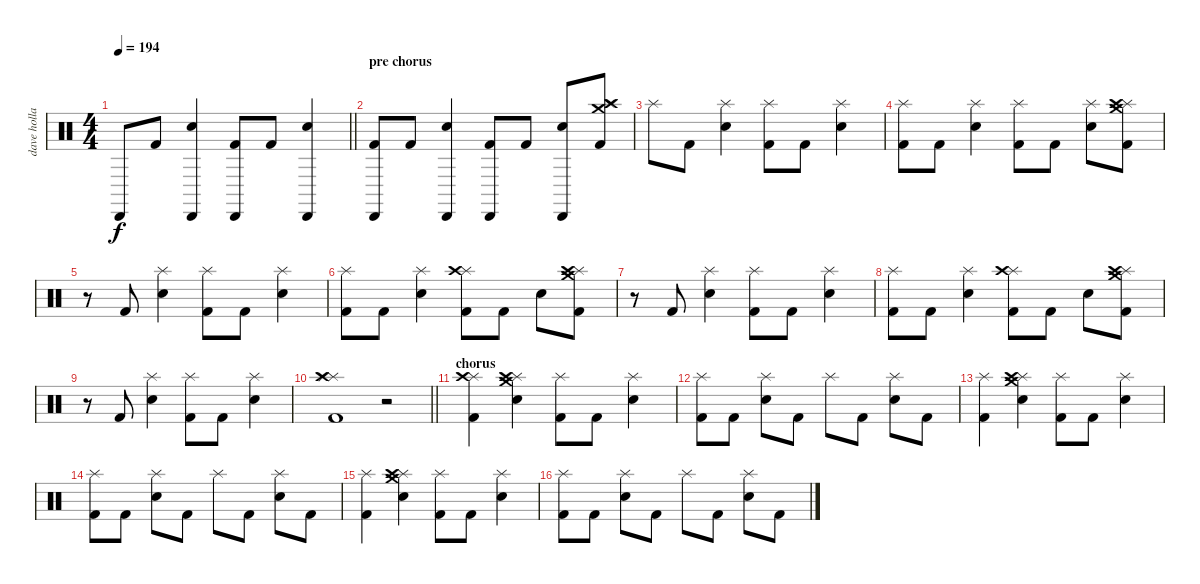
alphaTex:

\track ("dave holland" "dave holla") {instrument percussion}
\staff {score}
\articulation defaults
\ts (4 4)
\tempo 194
\clef neutral
\barLineRight lightlight
\ks c "Cabasa (hit)".8{dy f} "Kick (hit) 2".8
("Cabasa (hit)" "Electric Snare (hit)").4 ("Cabasa (hit)" "Kick (hit) 2").8 "Kick (hit) 2".8 ("Cabasa (hit)" "Electric Snare (hit)").4 |
\section ("" "pre chorus")
("Cabasa (hit)" "Kick (hit) 2").8 "Kick (hit) 2".8 ("Cabasa (hit)" "Electric Snare (hit)").4 ("Cabasa (hit)" "Kick (hit) 2").8 "Kick (hit) 2".8 ("Cabasa (hit)" "Electric Snare (hit)").8 ("Crash medium (hit)" "Splash (hit)" "Crash high (hit)" "Kick (hit) 2").8 |
"Splash (hit)".8 "Kick (hit) 2".8 ("Splash (hit)" "Electric Snare (hit)").4 ("Splash (hit)" "Kick (hit) 2").8 "Kick (hit) 2".8 ("Splash (hit)" "Electric Snare (hit)").4 |
("Splash (hit)" "Kick (hit) 2").8 "Kick (hit) 2".8 ("Splash (hit)" "Electric Snare (hit)").4 ("Splash (hit)" "Kick (hit) 2").8 "Kick (hit) 2".8 ("Splash (hit)" "Electric Snare (hit)").8 ("Crash medium (hit)" "Splash (hit)" "Crash high (hit)" "Kick (hit) 2").8 |
r.8 "Kick (hit) 2".8 ("Splash (hit)" "Electric Snare (hit)").4 ("Splash (hit)" "Kick (hit) 2").8 "Kick (hit) 2".8 ("Splash (hit)" "Electric Snare (hit)").4 |
("Splash (hit)" "Kick (hit) 2").8 "Kick (hit) 2".8 ("Splash (hit)" "Electric Snare (hit)").4 ("Splash (hit)" "Crash high (hit)" "Kick (hit) 2").8 "Kick (hit) 2".8 "Electric Snare (hit)".8 ("Crash medium (hit)" "Splash (hit)" "Crash high (hit)" "Kick (hit) 2").8 |
r.8 "Kick (hit) 2".8 ("Splash (hit)" "Electric Snare (hit)").4 ("Splash (hit)" "Kick (hit) 2").8 "Kick (hit) 2".8 ("Splash (hit)" "Electric Snare (hit)").4 |
("Splash (hit)" "Kick (hit) 2").8 "Kick (hit) 2".8 ("Splash (hit)" "Electric Snare (hit)").4 ("Splash (hit)" "Crash high (hit)" "Kick (hit) 2").8 "Kick (hit) 2".8 "Electric Snare (hit)".8 ("Crash medium (hit)" "Splash (hit)" "Crash high (hit)" "Kick (hit) 2").8 |
r.8 "Kick (hit) 2".8 ("Splash (hit)" "Electric Snare (hit)").4 ("Splash (hit)" "Kick (hit) 2").8 "Kick (hit) 2".8 ("Splash (hit)" "Electric Snare (hit)").4 |
\barLineRight lightlight
("Splash (hit)" "Splash (hit)" "Crash high (hit)" "Kick (hit) 2").1 r.2 |
\section ("" "chorus")
("Splash (hit)" "Crash high (hit)" "Kick (hit) 2").4 ("Crash medium (hit)" "Splash (hit)" "Crash high (hit)" "Electric Snare (hit)").4 ("Splash (hit)" "Kick (hit) 2").8 "Kick (hit) 2".8 ("Splash (hit)" "Electric Snare (hit)").4 |
("Splash (hit)" "Kick (hit) 2").8 "Kick (hit) 2".8 ("Splash (hit)" "Electric Snare (hit)").8 "Kick (hit) 2".8 "Splash (hit)".8 "Kick (hit) 2".8 ("Splash (hit)" "Electric Snare (hit)").8 "Kick (hit) 2".8 |
("Splash (hit)" "Kick (hit) 2").4 ("Crash medium (hit)" "Splash (hit)" "Crash high (hit)" "Electric Snare (hit)").4 ("Splash (hit)" "Kick (hit) 2").8 "Kick (hit) 2".8 ("Splash (hit)" "Electric Snare (hit)").4 |
("Splash (hit)" "Kick (hit) 2").8 "Kick (hit) 2".8 ("Splash (hit)" "Electric Snare (hit)").8 "Kick (hit) 2".8 "Splash (hit)".8 "Kick (hit) 2".8 ("Splash (hit)" "Electric Snare (hit)").8 "Kick (hit) 2".8 |
("Splash (hit)" "Kick (hit) 2").4 ("Crash medium (hit)" "Splash (hit)" "Crash high (hit)" "Electric Snare (hit)").4 ("Splash (hit)" "Kick (hit) 2").8 "Kick (hit) 2".8 ("Splash (hit)" "Electric Snare (hit)").4 |
("Splash (hit)" "Kick (hit) 2").8 "Kick (hit) 2".8 ("Splash (hit)" "Electric Snare (hit)").8 "Kick (hit) 2".8 "Splash (hit)".8 "Kick (hit) 2".8 ("Splash (hit)" "Electric Snare (hit)").8 "Kick (hit) 2".8
